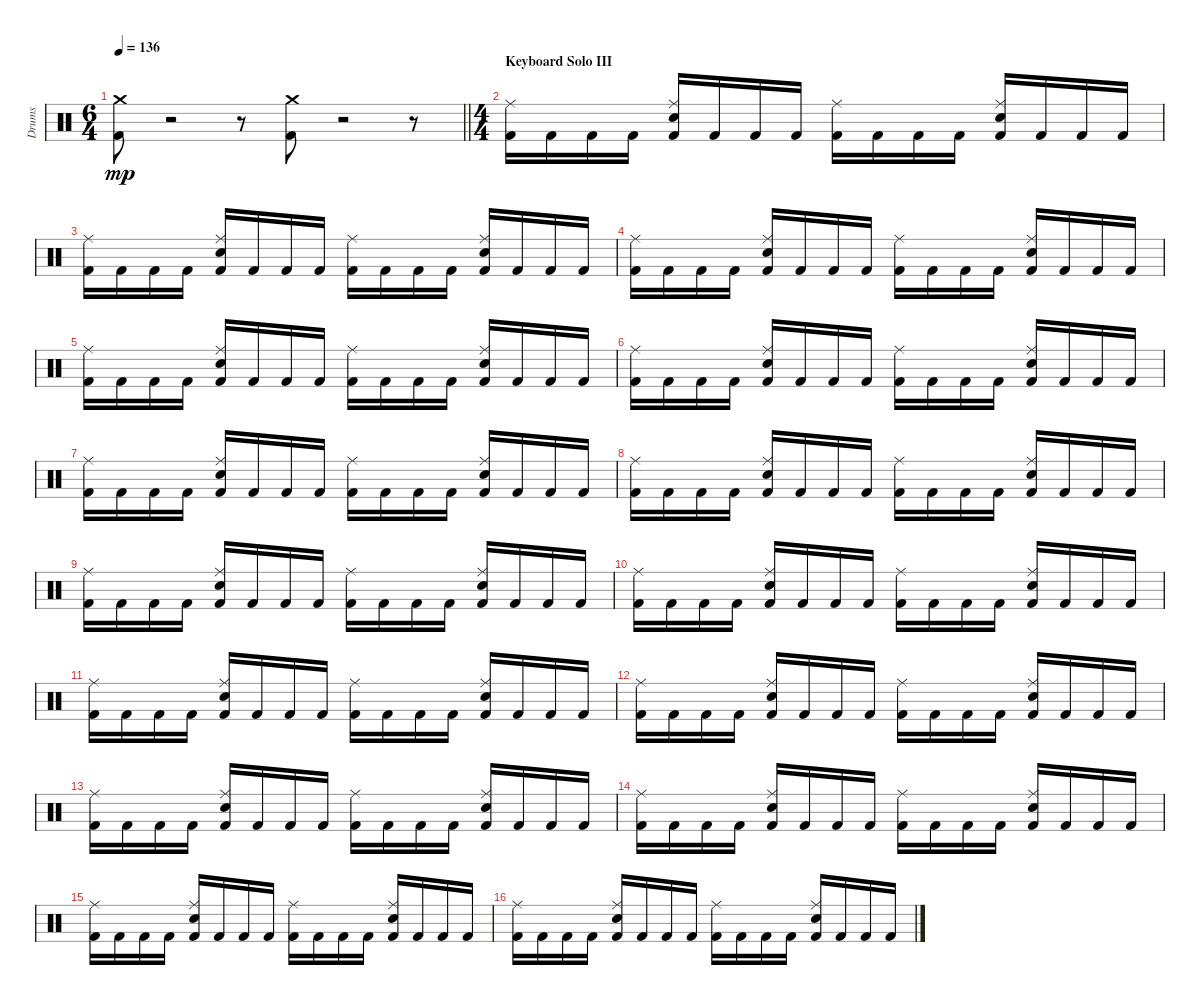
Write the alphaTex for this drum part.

\track ("Drums" "Drums") {instrument percussion}
\staff {score}
\articulation defaults
\ts (6 4)
\tempo 136
\clef neutral
\barLineRight lightlight
\ks c
("Crash medium (hit)" "Kick (hit) 2").8{dy mp} r.2 r.8 ("Crash medium (hit)" "Kick (hit) 2").8 r.2 r.8 |
\ts (4 4)
\section ("" "Keyboard Solo III")
("Ride (middle)" "Kick (hit) 2").16 "Kick (hit) 2".16 "Kick (hit) 2".16 "Kick (hit) 2".16 ("Ride (middle)" "Snare (hit) 2" "Kick (hit) 2").16 "Kick (hit) 2".16 "Kick (hit) 2".16 "Kick (hit) 2".16 ("Ride (middle)" "Kick (hit) 2").16 "Kick (hit) 2".16 "Kick (hit) 2".16 "Kick (hit) 2".16 ("Ride (middle)" "Snare (hit) 2" "Kick (hit) 2").16 "Kick (hit) 2".16 "Kick (hit) 2".16 "Kick (hit) 2".16 |
("Ride (middle)" "Kick (hit) 2").16 "Kick (hit) 2".16 "Kick (hit) 2".16 "Kick (hit) 2".16 ("Ride (middle)" "Snare (hit) 2" "Kick (hit) 2").16 "Kick (hit) 2".16 "Kick (hit) 2".16 "Kick (hit) 2".16 ("Ride (middle)" "Kick (hit) 2").16 "Kick (hit) 2".16 "Kick (hit) 2".16 "Kick (hit) 2".16 ("Ride (middle)" "Snare (hit) 2" "Kick (hit) 2").16 "Kick (hit) 2".16 "Kick (hit) 2".16 "Kick (hit) 2".16 |
("Ride (middle)" "Kick (hit) 2").16 "Kick (hit) 2".16 "Kick (hit) 2".16 "Kick (hit) 2".16 ("Ride (middle)" "Snare (hit) 2" "Kick (hit) 2").16 "Kick (hit) 2".16 "Kick (hit) 2".16 "Kick (hit) 2".16 ("Ride (middle)" "Kick (hit) 2").16 "Kick (hit) 2".16 "Kick (hit) 2".16 "Kick (hit) 2".16 ("Ride (middle)" "Snare (hit) 2" "Kick (hit) 2").16 "Kick (hit) 2".16 "Kick (hit) 2".16 "Kick (hit) 2".16 |
("Ride (middle)" "Kick (hit) 2").16 "Kick (hit) 2".16 "Kick (hit) 2".16 "Kick (hit) 2".16 ("Ride (middle)" "Snare (hit) 2" "Kick (hit) 2").16 "Kick (hit) 2".16 "Kick (hit) 2".16 "Kick (hit) 2".16 ("Ride (middle)" "Kick (hit) 2").16 "Kick (hit) 2".16 "Kick (hit) 2".16 "Kick (hit) 2".16 ("Ride (middle)" "Snare (hit) 2" "Kick (hit) 2").16 "Kick (hit) 2".16 "Kick (hit) 2".16 "Kick (hit) 2".16 |
("Ride (middle)" "Kick (hit) 2").16 "Kick (hit) 2".16 "Kick (hit) 2".16 "Kick (hit) 2".16 ("Ride (middle)" "Snare (hit) 2" "Kick (hit) 2").16 "Kick (hit) 2".16 "Kick (hit) 2".16 "Kick (hit) 2".16 ("Ride (middle)" "Kick (hit) 2").16 "Kick (hit) 2".16 "Kick (hit) 2".16 "Kick (hit) 2".16 ("Ride (middle)" "Snare (hit) 2" "Kick (hit) 2").16 "Kick (hit) 2".16 "Kick (hit) 2".16 "Kick (hit) 2".16 |
("Ride (middle)" "Kick (hit) 2").16 "Kick (hit) 2".16 "Kick (hit) 2".16 "Kick (hit) 2".16 ("Ride (middle)" "Snare (hit) 2" "Kick (hit) 2").16 "Kick (hit) 2".16 "Kick (hit) 2".16 "Kick (hit) 2".16 ("Ride (middle)" "Kick (hit) 2").16 "Kick (hit) 2".16 "Kick (hit) 2".16 "Kick (hit) 2".16 ("Ride (middle)" "Snare (hit) 2" "Kick (hit) 2").16 "Kick (hit) 2".16 "Kick (hit) 2".16 "Kick (hit) 2".16 |
("Ride (middle)" "Kick (hit) 2").16 "Kick (hit) 2".16 "Kick (hit) 2".16 "Kick (hit) 2".16 ("Ride (middle)" "Snare (hit) 2" "Kick (hit) 2").16 "Kick (hit) 2".16 "Kick (hit) 2".16 "Kick (hit) 2".16 ("Ride (middle)" "Kick (hit) 2").16 "Kick (hit) 2".16 "Kick (hit) 2".16 "Kick (hit) 2".16 ("Ride (middle)" "Snare (hit) 2" "Kick (hit) 2").16 "Kick (hit) 2".16 "Kick (hit) 2".16 "Kick (hit) 2".16 |
("Ride (middle)" "Kick (hit) 2").16 "Kick (hit) 2".16 "Kick (hit) 2".16 "Kick (hit) 2".16 ("Ride (middle)" "Snare (hit) 2" "Kick (hit) 2").16 "Kick (hit) 2".16 "Kick (hit) 2".16 "Kick (hit) 2".16 ("Ride (middle)" "Kick (hit) 2").16 "Kick (hit) 2".16 "Kick (hit) 2".16 "Kick (hit) 2".16 ("Ride (middle)" "Snare (hit) 2" "Kick (hit) 2").16 "Kick (hit) 2".16 "Kick (hit) 2".16 "Kick (hit) 2".16 |
("Ride (middle)" "Kick (hit) 2").16 "Kick (hit) 2".16 "Kick (hit) 2".16 "Kick (hit) 2".16 ("Ride (middle)" "Snare (hit) 2" "Kick (hit) 2").16 "Kick (hit) 2".16 "Kick (hit) 2".16 "Kick (hit) 2".16 ("Ride (middle)" "Kick (hit) 2").16 "Kick (hit) 2".16 "Kick (hit) 2".16 "Kick (hit) 2".16 ("Ride (middle)" "Snare (hit) 2" "Kick (hit) 2").16 "Kick (hit) 2".16 "Kick (hit) 2".16 "Kick (hit) 2".16 |
("Ride (middle)" "Kick (hit) 2").16 "Kick (hit) 2".16 "Kick (hit) 2".16 "Kick (hit) 2".16 ("Ride (middle)" "Snare (hit) 2" "Kick (hit) 2").16 "Kick (hit) 2".16 "Kick (hit) 2".16 "Kick (hit) 2".16 ("Ride (middle)" "Kick (hit) 2").16 "Kick (hit) 2".16 "Kick (hit) 2".16 "Kick (hit) 2".16 ("Ride (middle)" "Snare (hit) 2" "Kick (hit) 2").16 "Kick (hit) 2".16 "Kick (hit) 2".16 "Kick (hit) 2".16 |
("Ride (middle)" "Kick (hit) 2").16 "Kick (hit) 2".16 "Kick (hit) 2".16 "Kick (hit) 2".16 ("Ride (middle)" "Snare (hit) 2" "Kick (hit) 2").16 "Kick (hit) 2".16 "Kick (hit) 2".16 "Kick (hit) 2".16 ("Ride (middle)" "Kick (hit) 2").16 "Kick (hit) 2".16 "Kick (hit) 2".16 "Kick (hit) 2".16 ("Ride (middle)" "Snare (hit) 2" "Kick (hit) 2").16 "Kick (hit) 2".16 "Kick (hit) 2".16 "Kick (hit) 2".16 |
("Ride (middle)" "Kick (hit) 2").16 "Kick (hit) 2".16 "Kick (hit) 2".16 "Kick (hit) 2".16 ("Ride (middle)" "Snare (hit) 2" "Kick (hit) 2").16 "Kick (hit) 2".16 "Kick (hit) 2".16 "Kick (hit) 2".16 ("Ride (middle)" "Kick (hit) 2").16 "Kick (hit) 2".16 "Kick (hit) 2".16 "Kick (hit) 2".16 ("Ride (middle)" "Snare (hit) 2" "Kick (hit) 2").16 "Kick (hit) 2".16 "Kick (hit) 2".16 "Kick (hit) 2".16 |
("Ride (middle)" "Kick (hit) 2").16 "Kick (hit) 2".16 "Kick (hit) 2".16 "Kick (hit) 2".16 ("Ride (middle)" "Snare (hit) 2" "Kick (hit) 2").16 "Kick (hit) 2".16 "Kick (hit) 2".16 "Kick (hit) 2".16 ("Ride (middle)" "Kick (hit) 2").16 "Kick (hit) 2".16 "Kick (hit) 2".16 "Kick (hit) 2".16 ("Ride (middle)" "Snare (hit) 2" "Kick (hit) 2").16 "Kick (hit) 2".16 "Kick (hit) 2".16 "Kick (hit) 2".16 |
("Ride (middle)" "Kick (hit) 2").16 "Kick (hit) 2".16 "Kick (hit) 2".16 "Kick (hit) 2".16 ("Ride (middle)" "Snare (hit) 2" "Kick (hit) 2").16 "Kick (hit) 2".16 "Kick (hit) 2".16 "Kick (hit) 2".16 ("Ride (middle)" "Kick (hit) 2").16 "Kick (hit) 2".16 "Kick (hit) 2".16 "Kick (hit) 2".16 ("Ride (middle)" "Snare (hit) 2" "Kick (hit) 2").16 "Kick (hit) 2".16 "Kick (hit) 2".16 "Kick (hit) 2".16 |
("Ride (middle)" "Kick (hit) 2").16 "Kick (hit) 2".16 "Kick (hit) 2".16 "Kick (hit) 2".16 ("Ride (middle)" "Snare (hit) 2" "Kick (hit) 2").16 "Kick (hit) 2".16 "Kick (hit) 2".16 "Kick (hit) 2".16 ("Ride (middle)" "Kick (hit) 2").16 "Kick (hit) 2".16 "Kick (hit) 2".16 "Kick (hit) 2".16 ("Ride (middle)" "Snare (hit) 2" "Kick (hit) 2").16 "Kick (hit) 2".16 "Kick (hit) 2".16 "Kick (hit) 2".16
